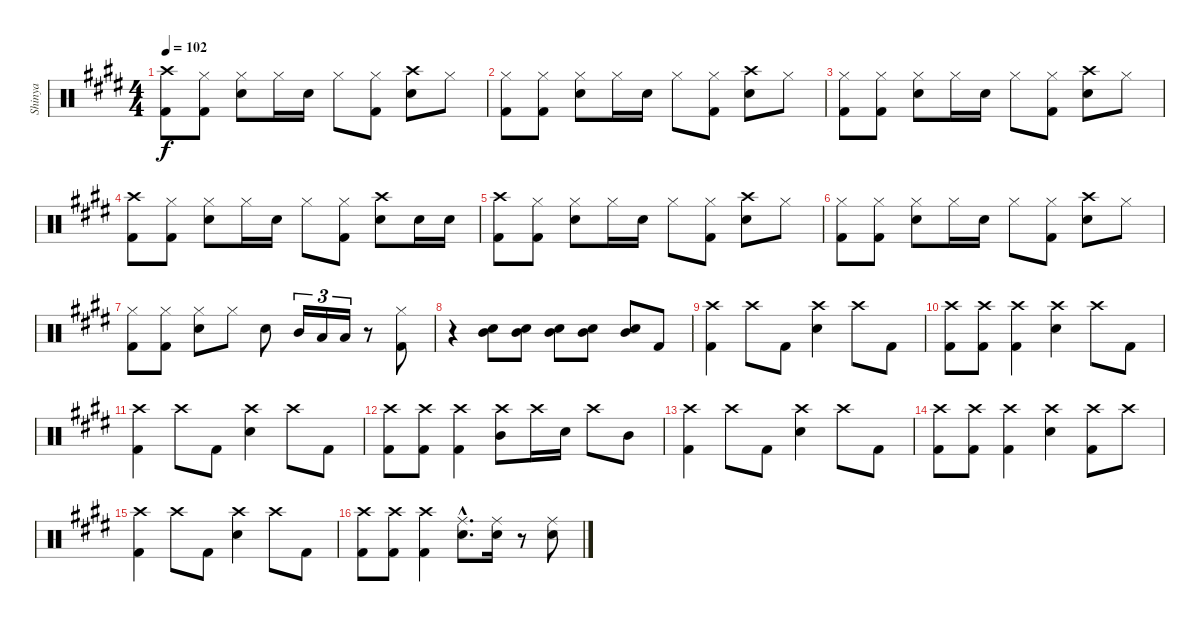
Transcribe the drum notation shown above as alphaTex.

\track ("Shinya" "Shinya") {instrument percussion}
\staff {score}
\articulation defaults
\ts (4 4)
\tempo 102
\clef neutral
\ks e
("Crash high (hit)" "Kick (hit) 2").8{dy f} ("Hi-Hat (closed)" "Kick (hit) 2").8 ("Hi-Hat (closed)" "Snare (hit) 2").8 "Hi-Hat (closed)".16 "Snare (hit) 2".16 "Hi-Hat (closed)".8 ("Hi-Hat (closed)" "Kick (hit) 2").8 ("Crash high (hit)" "Snare (hit) 2").8 "Hi-Hat (closed)".8 |
("Hi-Hat (closed)" "Kick (hit) 2").8 ("Hi-Hat (closed)" "Kick (hit) 2").8 ("Hi-Hat (closed)" "Snare (hit) 2").8 "Hi-Hat (closed)".16 "Snare (hit) 2".16 "Hi-Hat (closed)".8 ("Hi-Hat (closed)" "Kick (hit) 2").8 ("Crash high (hit)" "Snare (hit) 2").8 "Hi-Hat (closed)".8 |
("Hi-Hat (closed)" "Kick (hit) 2").8 ("Hi-Hat (closed)" "Kick (hit) 2").8 ("Hi-Hat (closed)" "Snare (hit) 2").8 "Hi-Hat (closed)".16 "Snare (hit) 2".16 "Hi-Hat (closed)".8 ("Hi-Hat (closed)" "Kick (hit) 2").8 ("Crash high (hit)" "Snare (hit) 2").8 "Hi-Hat (closed)".8 |
("Crash high (hit)" "Kick (hit) 2").8 ("Hi-Hat (closed)" "Kick (hit) 2").8 ("Hi-Hat (closed)" "Snare (hit) 2").8 "Hi-Hat (closed)".16 "Snare (hit) 2".16 "Hi-Hat (closed)".8 ("Hi-Hat (closed)" "Kick (hit) 2").8 ("Crash high (hit)" "Snare (hit) 2").8 "Snare (hit) 2".16 "Snare (hit) 2".16 |
("Crash high (hit)" "Kick (hit) 2").8 ("Hi-Hat (closed)" "Kick (hit) 2").8 ("Hi-Hat (closed)" "Snare (hit) 2").8 "Hi-Hat (closed)".16 "Snare (hit) 2".16 "Hi-Hat (closed)".8 ("Hi-Hat (closed)" "Kick (hit) 2").8 ("Crash high (hit)" "Snare (hit) 2").8 "Hi-Hat (closed)".8 |
("Hi-Hat (closed)" "Kick (hit) 2").8 ("Hi-Hat (closed)" "Kick (hit) 2").8 ("Hi-Hat (closed)" "Snare (hit) 2").8 "Hi-Hat (closed)".16 "Snare (hit) 2".16 "Hi-Hat (closed)".8 ("Hi-Hat (closed)" "Kick (hit) 2").8 ("Crash high (hit)" "Snare (hit) 2").8 "Hi-Hat (closed)".8 |
("Hi-Hat (closed)" "Kick (hit) 2").8 ("Hi-Hat (closed)" "Kick (hit) 2").8 ("Hi-Hat (closed)" "Snare (hit) 2").8 "Hi-Hat (closed)".8 "Snare (hit) 2".8 "Mid Tom (hit)".16{tu (3 2)} "Low Tom (hit)".16{tu (3 2)} "Low Floor Tom (hit)".16{tu (3 2)} r.8 ("Hi-Hat (closed)" "Kick (hit) 2").8 |
r.4 ("Snare (hit) 2" "Mid Tom (hit)").8 ("Snare (hit) 2" "Mid Tom (hit)").8 ("Snare (hit) 2" "Mid Tom (hit)").8 ("Snare (hit) 2" "Mid Tom (hit)").8 ("Snare (hit) 2" "Mid Tom (hit)").8 "Kick (hit) 2".8 |
("Crash high (hit)" "Kick (hit) 2").4 "Crash high (hit)".8 "Kick (hit) 2".8 ("Crash high (hit)" "Snare (hit) 2").4 "Crash high (hit)".8 "Kick (hit) 2".8 |
("Crash high (hit)" "Kick (hit) 2").8 ("Crash high (hit)" "Kick (hit) 2").8 ("Crash high (hit)" "Kick (hit) 2").4 ("Crash high (hit)" "Snare (hit) 2").4 "Crash high (hit)".8 "Kick (hit) 2".8 |
("Crash high (hit)" "Kick (hit) 2").4 "Crash high (hit)".8 "Kick (hit) 2".8 ("Crash high (hit)" "Snare (hit) 2").4 "Crash high (hit)".8 "Kick (hit) 2".8 |
("Crash high (hit)" "Kick (hit) 2").8 ("Crash high (hit)" "Kick (hit) 2").8 ("Crash high (hit)" "Kick (hit) 2").4 ("Crash high (hit)" "Mid Tom (hit)").8 "Crash high (hit)".16 "Snare (hit) 2".16 "Crash high (hit)".8 "Mid Tom (hit)".8 |
("Crash high (hit)" "Kick (hit) 2").4 "Crash high (hit)".8 "Kick (hit) 2".8 ("Crash high (hit)" "Snare (hit) 2").4 "Crash high (hit)".8 "Kick (hit) 2".8 |
("Crash high (hit)" "Kick (hit) 2").8 ("Crash high (hit)" "Kick (hit) 2").8 ("Crash high (hit)" "Kick (hit) 2").4 ("Crash high (hit)" "Snare (hit) 2").4 ("Crash high (hit)" "Kick (hit) 2").8 "Crash high (hit)".8 |
("Crash high (hit)" "Kick (hit) 2").4 "Crash high (hit)".8 "Kick (hit) 2".8 ("Crash high (hit)" "Snare (hit) 2").4 "Crash high (hit)".8 "Kick (hit) 2".8 |
("Crash high (hit)" "Kick (hit) 2").8 ("Crash high (hit)" "Kick (hit) 2").8 ("Crash high (hit)" "Kick (hit) 2").4 ("Ride (middle)"{hac} "Snare (hit) 2"{hac}).8{d} ("Ride (middle)" "Snare (hit) 2").16 r.8 ("Ride (middle)" "Snare (hit) 2").8
